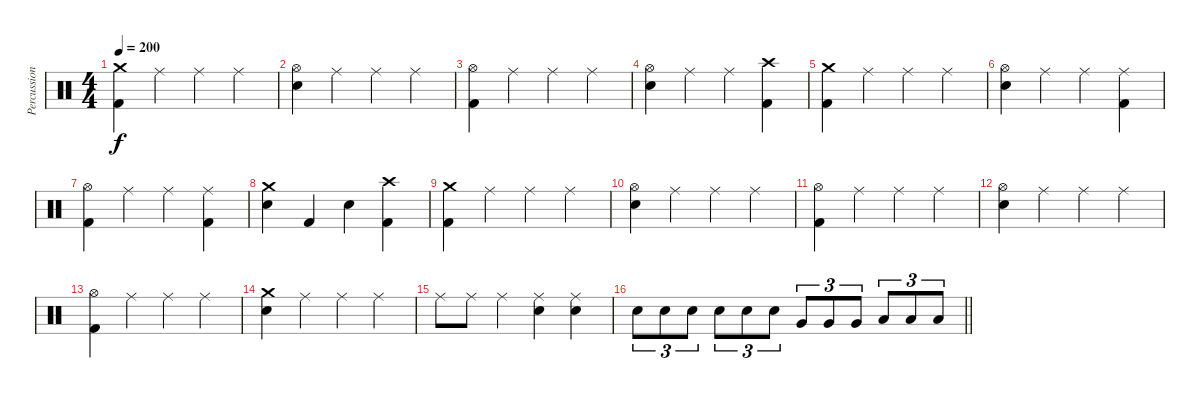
\track ("Percussion" "Percussion") {instrument percussion}
\staff {score}
\articulation defaults
\ts (4 4)
\tempo 200
\clef neutral
\ks c
("Crash medium (hit)" "Kick (hit) 2").4{dy f} "Ride (middle)".4 "Ride (middle)".4 "Ride (middle)".4 |
("Hi-Hat (open)" "Electric Snare (hit)").4 "Ride (middle)".4 "Ride (middle)".4 "Ride (middle)".4 |
("Hi-Hat (open)" "Kick (hit) 2").4 "Ride (middle)".4 "Ride (middle)".4 "Ride (middle)".4 |
("Hi-Hat (open)" "Electric Snare (hit)").4 "Ride (middle)".4 "Ride (middle)".4 ("Crash high (hit)" "Kick (hit) 2").4 |
("Crash medium (hit)" "Kick (hit) 2").4 "Ride (middle)".4 "Ride (middle)".4 "Ride (middle)".4 |
("Hi-Hat (open)" "Electric Snare (hit)").4 "Ride (middle)".4 "Ride (middle)".4 ("Ride (middle)" "Kick (hit) 2").4 |
("Hi-Hat (open)" "Kick (hit) 2").4 "Ride (middle)".4 "Ride (middle)".4 ("Ride (middle)" "Kick (hit) 2").4 |
("Crash medium (hit)" "Electric Snare (hit)").4 "Kick (hit) 2".4 "Electric Snare (hit)".4 ("Crash high (hit)" "Kick (hit) 2").4 |
("Crash medium (hit)" "Kick (hit) 2").4 "Ride (middle)".4 "Ride (middle)".4 "Ride (middle)".4 |
("Hi-Hat (open)" "Electric Snare (hit)").4 "Ride (middle)".4 "Ride (middle)".4 "Ride (middle)".4 |
("Hi-Hat (open)" "Kick (hit) 2").4 "Ride (middle)".4 "Ride (middle)".4 "Ride (middle)".4 |
("Hi-Hat (open)" "Electric Snare (hit)").4 "Ride (middle)".4 "Ride (middle)".4 "Ride (middle)".4 |
("Hi-Hat (open)" "Kick (hit) 2").4 "Ride (middle)".4 "Ride (middle)".4 "Ride (middle)".4 |
("Crash medium (hit)" "Electric Snare (hit)").4 "Ride (middle)".4 "Ride (middle)".4 "Ride (middle)".4 |
"Ride (middle)".8 "Ride (middle)".8 "Ride (middle)".4 ("Ride (middle)" "Electric Snare (hit)").4 ("Ride (middle)" "Electric Snare (hit)").4 |
\barLineRight lightlight "Electric Snare (hit)".8{tu (3 2)} "Electric Snare (hit)".8{tu (3 2)} "Electric Snare (hit)".8{tu (3 2)} "Electric Snare (hit)".8{tu (3 2)} "Electric Snare (hit)".8{tu (3 2)} "Electric Snare (hit)".8{tu (3 2)} "Very Low Tom (hit)".8{tu (3 2)} "Very Low Tom (hit)".8{tu (3 2)} "Very Low Tom (hit)".8{tu (3 2)} "Low Floor Tom (hit)".8{tu (3 2)} "Low Floor Tom (hit)".8{tu (3 2)} "Low Floor Tom (hit)".8{tu (3 2)}
